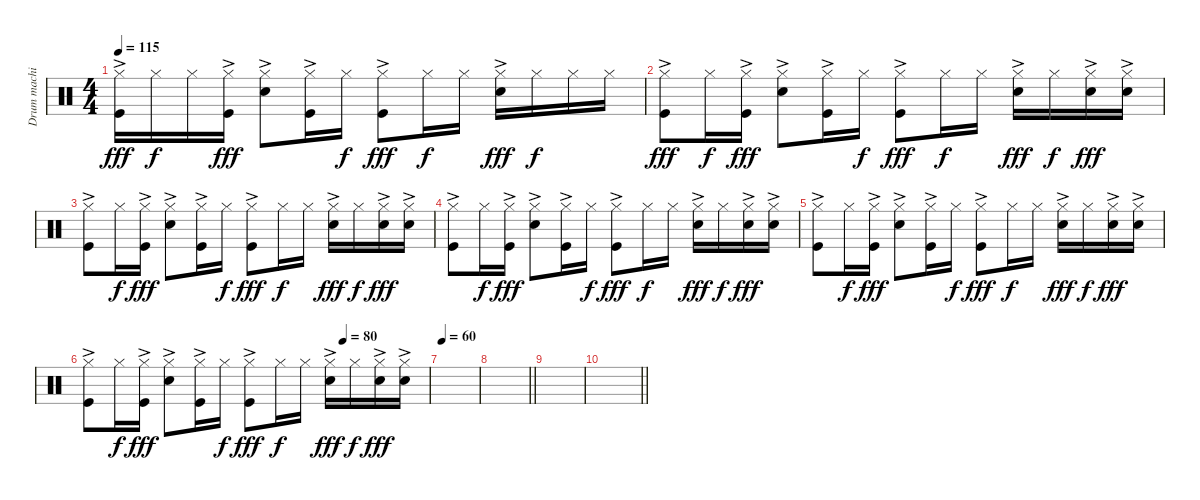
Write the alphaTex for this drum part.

\track ("Drum machine" "Drum machi") {instrument percussion}
\staff {score}
\articulation defaults
\ts (4 4)
\tempo 115
\clef neutral
\ks c
("Hi-Hat (closed)" "Kick (hit)"{ac}).16{dy fff} "Hi-Hat (closed)".16{dy f} "Hi-Hat (closed)".16 ("Hi-Hat (closed)" "Kick (hit)"{ac}).16{dy fff} ("Hi-Hat (closed)" "Snare (hit) 2"{ac}).8 ("Hi-Hat (closed)" "Kick (hit)"{ac}).16 "Hi-Hat (closed)".16{dy f} ("Hi-Hat (closed)" "Kick (hit)"{ac}).8{dy fff} "Hi-Hat (closed)".16{dy f} "Hi-Hat (closed)".16 ("Hi-Hat (closed)" "Snare (hit) 2"{ac}).16{dy fff} "Hi-Hat (closed)".16{dy f} "Hi-Hat (closed)".16 "Hi-Hat (closed)".16 |
("Hi-Hat (closed)" "Kick (hit)"{ac}).8{dy fff} "Hi-Hat (closed)".16{dy f} ("Hi-Hat (closed)" "Kick (hit)"{ac}).16{dy fff} ("Hi-Hat (closed)" "Snare (hit) 2"{ac}).8 ("Hi-Hat (closed)" "Kick (hit)"{ac}).16 "Hi-Hat (closed)".16{dy f} ("Hi-Hat (closed)" "Kick (hit)"{ac}).8{dy fff} "Hi-Hat (closed)".16{dy f} "Hi-Hat (closed)".16 ("Hi-Hat (closed)" "Snare (hit) 2"{ac}).16{dy fff} "Hi-Hat (closed)".16{dy f} ("Hi-Hat (closed)" "Snare (hit) 2"{ac}).16{dy fff} ("Hi-Hat (closed)" "Snare (hit) 2"{ac}).16 |
("Hi-Hat (closed)" "Kick (hit)"{ac}).8 "Hi-Hat (closed)".16{dy f} ("Hi-Hat (closed)" "Kick (hit)"{ac}).16{dy fff} ("Hi-Hat (closed)" "Snare (hit) 2"{ac}).8 ("Hi-Hat (closed)" "Kick (hit)"{ac}).16 "Hi-Hat (closed)".16{dy f} ("Hi-Hat (closed)" "Kick (hit)"{ac}).8{dy fff} "Hi-Hat (closed)".16{dy f} "Hi-Hat (closed)".16 ("Hi-Hat (closed)" "Snare (hit) 2"{ac}).16{dy fff} "Hi-Hat (closed)".16{dy f} ("Hi-Hat (closed)" "Snare (hit) 2"{ac}).16{dy fff} ("Hi-Hat (closed)" "Snare (hit) 2"{ac}).16 |
("Hi-Hat (closed)" "Kick (hit)"{ac}).8 "Hi-Hat (closed)".16{dy f} ("Hi-Hat (closed)" "Kick (hit)"{ac}).16{dy fff} ("Hi-Hat (closed)" "Snare (hit) 2"{ac}).8 ("Hi-Hat (closed)" "Kick (hit)"{ac}).16 "Hi-Hat (closed)".16{dy f} ("Hi-Hat (closed)" "Kick (hit)"{ac}).8{dy fff} "Hi-Hat (closed)".16{dy f} "Hi-Hat (closed)".16 ("Hi-Hat (closed)" "Snare (hit) 2"{ac}).16{dy fff} "Hi-Hat (closed)".16{dy f} ("Hi-Hat (closed)" "Snare (hit) 2"{ac}).16{dy fff} ("Hi-Hat (closed)" "Snare (hit) 2"{ac}).16 |
("Hi-Hat (closed)" "Kick (hit)"{ac}).8 "Hi-Hat (closed)".16{dy f} ("Hi-Hat (closed)" "Kick (hit)"{ac}).16{dy fff} ("Hi-Hat (closed)" "Snare (hit) 2"{ac}).8 ("Hi-Hat (closed)" "Kick (hit)"{ac}).16 "Hi-Hat (closed)".16{dy f} ("Hi-Hat (closed)" "Kick (hit)"{ac}).8{dy fff} "Hi-Hat (closed)".16{dy f} "Hi-Hat (closed)".16 ("Hi-Hat (closed)" "Snare (hit) 2"{ac}).16{dy fff} "Hi-Hat (closed)".16{dy f} ("Hi-Hat (closed)" "Snare (hit) 2"{ac}).16{dy fff} ("Hi-Hat (closed)" "Snare (hit) 2"{ac}).16 |
\tempo (80 0.75)
("Hi-Hat (closed)" "Kick (hit)"{ac}).8 "Hi-Hat (closed)".16{dy f} ("Hi-Hat (closed)" "Kick (hit)"{ac}).16{dy fff} ("Hi-Hat (closed)" "Snare (hit) 2"{ac}).8 ("Hi-Hat (closed)" "Kick (hit)"{ac}).16 "Hi-Hat (closed)".16{dy f} ("Hi-Hat (closed)" "Kick (hit)"{ac}).8{dy fff} "Hi-Hat (closed)".16{dy f} "Hi-Hat (closed)".16 ("Hi-Hat (closed)" "Snare (hit) 2"{ac}).16{dy fff} "Hi-Hat (closed)".16{dy f} ("Hi-Hat (closed)" "Snare (hit) 2"{ac}).16{dy fff} ("Hi-Hat (closed)" "Snare (hit) 2"{ac}).16 |
\tempo 60
|
\barLineRight lightlight
|
|
\barLineRight lightlight
